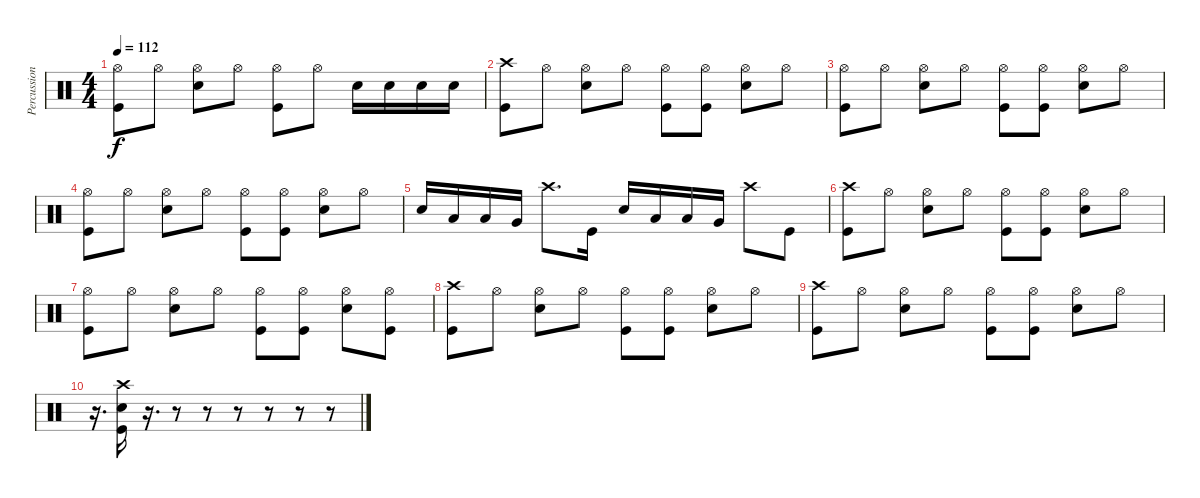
\track ("Percussions" "Percussion") {instrument percussion}
\staff {score}
\articulation defaults
\ts (4 4)
\tempo 112
\clef neutral
\ks c
("Hi-Hat (open)" "Kick (hit)").8{dy f} "Hi-Hat (open)".8 ("Hi-Hat (open)" "Snare (hit) 2").8 "Hi-Hat (open)".8 ("Hi-Hat (open)" "Kick (hit)").8 "Hi-Hat (open)".8 "Snare (hit) 2".16 "Snare (hit) 2".16 "Snare (hit) 2".16 "Snare (hit) 2".16 |
("Crash high (hit)" "Kick (hit)").8 "Hi-Hat (open)".8 ("Hi-Hat (open)" "Snare (hit) 2").8 "Hi-Hat (open)".8 ("Hi-Hat (open)" "Kick (hit)").8 ("Hi-Hat (open)" "Kick (hit)").8 ("Hi-Hat (open)" "Snare (hit) 2").8 "Hi-Hat (open)".8 |
("Hi-Hat (open)" "Kick (hit)").8 "Hi-Hat (open)".8 ("Hi-Hat (open)" "Snare (hit) 2").8 "Hi-Hat (open)".8 ("Hi-Hat (open)" "Kick (hit)").8 ("Hi-Hat (open)" "Kick (hit)").8 ("Hi-Hat (open)" "Snare (hit) 2").8 "Hi-Hat (open)".8 |
("Hi-Hat (open)" "Kick (hit)").8 "Hi-Hat (open)".8 ("Hi-Hat (open)" "Snare (hit) 2").8 "Hi-Hat (open)".8 ("Hi-Hat (open)" "Kick (hit)").8 ("Hi-Hat (open)" "Kick (hit)").8 ("Hi-Hat (open)" "Snare (hit) 2").8 "Hi-Hat (open)".8 |
"Snare (hit) 2".16 "Low Tom (hit)".16 "Low Tom (hit)".16 "Very Low Tom (hit)".16 "Crash high (hit)".8{d} "Kick (hit)".16 "Snare (hit) 2".16 "Low Tom (hit)".16 "Low Tom (hit)".16 "Very Low Tom (hit)".16 "Crash high (hit)".8 "Kick (hit)".8 |
("Crash high (hit)" "Kick (hit)").8 "Hi-Hat (open)".8 ("Hi-Hat (open)" "Snare (hit) 2").8 "Hi-Hat (open)".8 ("Hi-Hat (open)" "Kick (hit)").8 ("Hi-Hat (open)" "Kick (hit)").8 ("Hi-Hat (open)" "Snare (hit) 2").8 "Hi-Hat (open)".8 |
("Hi-Hat (open)" "Kick (hit)").8 "Hi-Hat (open)".8 ("Hi-Hat (open)" "Snare (hit) 2").8 "Hi-Hat (open)".8 ("Hi-Hat (open)" "Kick (hit)").8 ("Hi-Hat (open)" "Kick (hit)").8 ("Hi-Hat (open)" "Snare (hit) 2").8 ("Hi-Hat (open)" "Kick (hit)").8 |
("Crash high (hit)" "Kick (hit)").8 "Hi-Hat (open)".8 ("Hi-Hat (open)" "Snare (hit) 2").8 "Hi-Hat (open)".8 ("Hi-Hat (open)" "Kick (hit)").8 ("Hi-Hat (open)" "Kick (hit)").8 ("Hi-Hat (open)" "Snare (hit) 2").8 "Hi-Hat (open)".8 |
("Crash high (hit)" "Kick (hit)").8 "Hi-Hat (open)".8 ("Hi-Hat (open)" "Snare (hit) 2").8 "Hi-Hat (open)".8 ("Hi-Hat (open)" "Kick (hit)").8 ("Hi-Hat (open)" "Kick (hit)").8 ("Hi-Hat (open)" "Snare (hit) 2").8 "Hi-Hat (open)".8 |
r.16{d} ("Crash high (hit)" "Snare (hit) 2" "Kick (hit)").16 r.16{d} r.8 r.8 r.8 r.8 r.8 r.8
